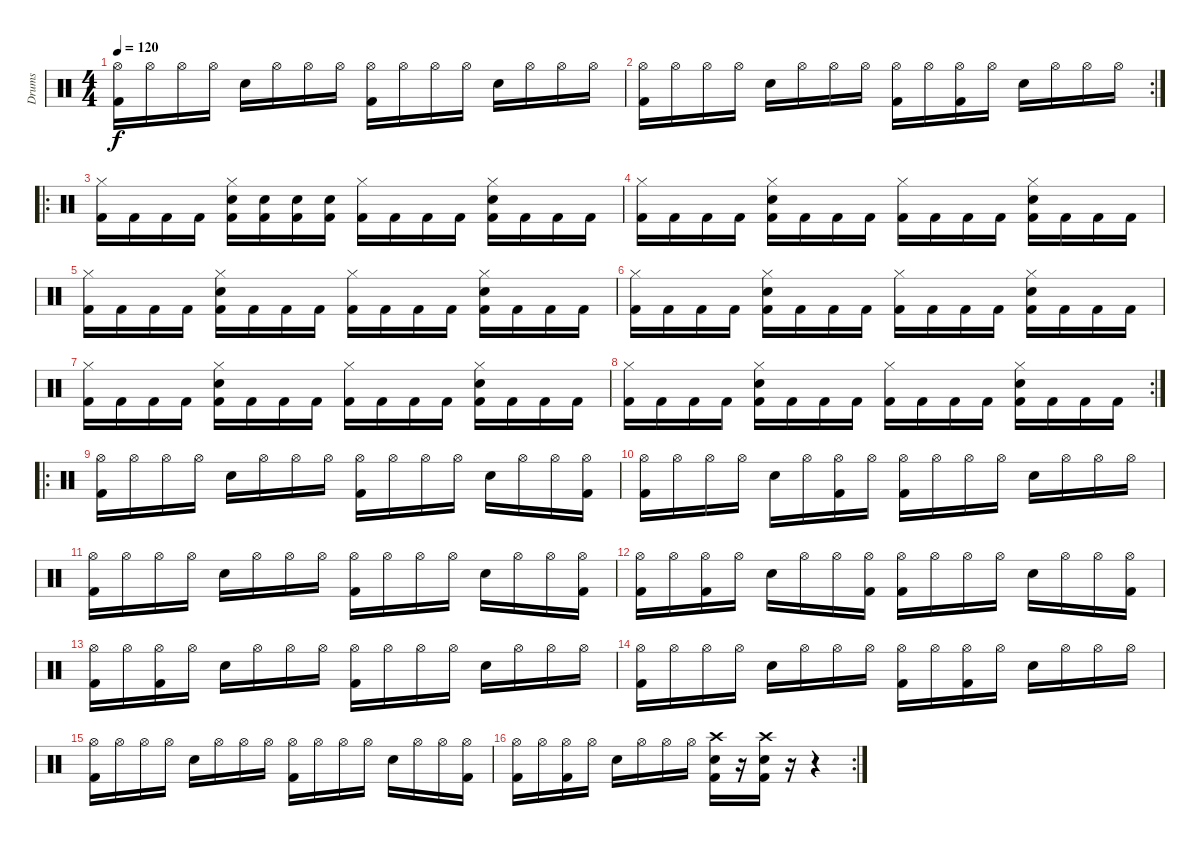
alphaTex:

\track ("Drums" "Drums") {instrument percussion}
\staff {score}
\articulation defaults
\ts (4 4)
\tempo 120
\clef neutral
\ks c
("Hi-Hat (open)" "Kick (hit) 2").16{dy f} "Hi-Hat (open)".16 "Hi-Hat (open)".16 "Hi-Hat (open)".16 "Electric Snare (hit)".16 "Hi-Hat (open)".16 "Hi-Hat (open)".16 "Hi-Hat (open)".16 ("Hi-Hat (open)" "Kick (hit) 2").16 "Hi-Hat (open)".16 "Hi-Hat (open)".16 "Hi-Hat (open)".16 "Electric Snare (hit)".16 "Hi-Hat (open)".16 "Hi-Hat (open)".16 "Hi-Hat (open)".16 |
\rc 2
("Hi-Hat (open)" "Kick (hit) 2").16 "Hi-Hat (open)".16 "Hi-Hat (open)".16 "Hi-Hat (open)".16 "Electric Snare (hit)".16 "Hi-Hat (open)".16 "Hi-Hat (open)".16 "Hi-Hat (open)".16 ("Hi-Hat (open)" "Kick (hit) 2").16 "Hi-Hat (open)".16 ("Hi-Hat (open)" "Kick (hit) 2").16 "Hi-Hat (open)".16 "Electric Snare (hit)".16 "Hi-Hat (open)".16 "Hi-Hat (open)".16 "Hi-Hat (open)".16 |
\ro
("Hi-Hat (closed)" "Kick (hit) 2").16 "Kick (hit) 2".16 "Kick (hit) 2".16 "Kick (hit) 2".16 ("Hi-Hat (closed)" "Electric Snare (hit)" "Kick (hit) 2").16 ("Electric Snare (hit)" "Kick (hit) 2").16 ("Electric Snare (hit)" "Kick (hit) 2").16 ("Electric Snare (hit)" "Kick (hit) 2").16 ("Hi-Hat (closed)" "Kick (hit) 2").16 "Kick (hit) 2".16 "Kick (hit) 2".16 "Kick (hit) 2".16 ("Hi-Hat (closed)" "Electric Snare (hit)" "Kick (hit) 2").16 "Kick (hit) 2".16 "Kick (hit) 2".16 "Kick (hit) 2".16 |
("Hi-Hat (closed)" "Kick (hit) 2").16 "Kick (hit) 2".16 "Kick (hit) 2".16 "Kick (hit) 2".16 ("Hi-Hat (closed)" "Electric Snare (hit)" "Kick (hit) 2").16 "Kick (hit) 2".16 "Kick (hit) 2".16 "Kick (hit) 2".16 ("Hi-Hat (closed)" "Kick (hit) 2").16 "Kick (hit) 2".16 "Kick (hit) 2".16 "Kick (hit) 2".16 ("Hi-Hat (closed)" "Electric Snare (hit)" "Kick (hit) 2").16 "Kick (hit) 2".16 "Kick (hit) 2".16 "Kick (hit) 2".16 |
("Hi-Hat (closed)" "Kick (hit) 2").16 "Kick (hit) 2".16 "Kick (hit) 2".16 "Kick (hit) 2".16 ("Hi-Hat (closed)" "Electric Snare (hit)" "Kick (hit) 2").16 "Kick (hit) 2".16 "Kick (hit) 2".16 "Kick (hit) 2".16 ("Hi-Hat (closed)" "Kick (hit) 2").16 "Kick (hit) 2".16 "Kick (hit) 2".16 "Kick (hit) 2".16 ("Hi-Hat (closed)" "Electric Snare (hit)" "Kick (hit) 2").16 "Kick (hit) 2".16 "Kick (hit) 2".16 "Kick (hit) 2".16 |
("Hi-Hat (closed)" "Kick (hit) 2").16 "Kick (hit) 2".16 "Kick (hit) 2".16 "Kick (hit) 2".16 ("Hi-Hat (closed)" "Electric Snare (hit)" "Kick (hit) 2").16 "Kick (hit) 2".16 "Kick (hit) 2".16 "Kick (hit) 2".16 ("Hi-Hat (closed)" "Kick (hit) 2").16 "Kick (hit) 2".16 "Kick (hit) 2".16 "Kick (hit) 2".16 ("Hi-Hat (closed)" "Electric Snare (hit)" "Kick (hit) 2").16 "Kick (hit) 2".16 "Kick (hit) 2".16 "Kick (hit) 2".16 |
("Hi-Hat (closed)" "Kick (hit) 2").16 "Kick (hit) 2".16 "Kick (hit) 2".16 "Kick (hit) 2".16 ("Hi-Hat (closed)" "Electric Snare (hit)" "Kick (hit) 2").16 "Kick (hit) 2".16 "Kick (hit) 2".16 "Kick (hit) 2".16 ("Hi-Hat (closed)" "Kick (hit) 2").16 "Kick (hit) 2".16 "Kick (hit) 2".16 "Kick (hit) 2".16 ("Hi-Hat (closed)" "Electric Snare (hit)" "Kick (hit) 2").16 "Kick (hit) 2".16 "Kick (hit) 2".16 "Kick (hit) 2".16 |
\rc 2
("Hi-Hat (closed)" "Kick (hit) 2").16 "Kick (hit) 2".16 "Kick (hit) 2".16 "Kick (hit) 2".16 ("Hi-Hat (closed)" "Electric Snare (hit)" "Kick (hit) 2").16 "Kick (hit) 2".16 "Kick (hit) 2".16 "Kick (hit) 2".16 ("Hi-Hat (closed)" "Kick (hit) 2").16 "Kick (hit) 2".16 "Kick (hit) 2".16 "Kick (hit) 2".16 ("Hi-Hat (closed)" "Electric Snare (hit)" "Kick (hit) 2").16 "Kick (hit) 2".16 "Kick (hit) 2".16 "Kick (hit) 2".16 |
\ro
("Hi-Hat (open)" "Kick (hit) 2").16 "Hi-Hat (open)".16 "Hi-Hat (open)".16 "Hi-Hat (open)".16 "Electric Snare (hit)".16 "Hi-Hat (open)".16 "Hi-Hat (open)".16 "Hi-Hat (open)".16 ("Hi-Hat (open)" "Kick (hit) 2").16 "Hi-Hat (open)".16 "Hi-Hat (open)".16 "Hi-Hat (open)".16 "Electric Snare (hit)".16 "Hi-Hat (open)".16 "Hi-Hat (open)".16 ("Hi-Hat (open)" "Kick (hit) 2").16 |
("Hi-Hat (open)" "Kick (hit) 2").16 "Hi-Hat (open)".16 "Hi-Hat (open)".16 "Hi-Hat (open)".16 "Electric Snare (hit)".16 "Hi-Hat (open)".16 ("Hi-Hat (open)" "Kick (hit) 2").16 "Hi-Hat (open)".16 ("Hi-Hat (open)" "Kick (hit) 2").16 "Hi-Hat (open)".16 "Hi-Hat (open)".16 "Hi-Hat (open)".16 "Electric Snare (hit)".16 "Hi-Hat (open)".16 "Hi-Hat (open)".16 "Hi-Hat (open)".16 |
("Hi-Hat (open)" "Kick (hit) 2").16 "Hi-Hat (open)".16 "Hi-Hat (open)".16 "Hi-Hat (open)".16 "Electric Snare (hit)".16 "Hi-Hat (open)".16 "Hi-Hat (open)".16 "Hi-Hat (open)".16 ("Hi-Hat (open)" "Kick (hit) 2").16 "Hi-Hat (open)".16 "Hi-Hat (open)".16 "Hi-Hat (open)".16 "Electric Snare (hit)".16 "Hi-Hat (open)".16 "Hi-Hat (open)".16 ("Hi-Hat (open)" "Kick (hit) 2").16 |
("Hi-Hat (open)" "Kick (hit) 2").16 "Hi-Hat (open)".16 ("Hi-Hat (open)" "Kick (hit) 2").16 "Hi-Hat (open)".16 "Electric Snare (hit)".16 "Hi-Hat (open)".16 "Hi-Hat (open)".16 ("Hi-Hat (open)" "Kick (hit) 2").16 ("Hi-Hat (open)" "Kick (hit) 2").16 "Hi-Hat (open)".16 "Hi-Hat (open)".16 "Hi-Hat (open)".16 "Electric Snare (hit)".16 "Hi-Hat (open)".16 "Hi-Hat (open)".16 ("Hi-Hat (open)" "Kick (hit) 2").16 |
("Hi-Hat (open)" "Kick (hit) 2").16 "Hi-Hat (open)".16 ("Hi-Hat (open)" "Kick (hit) 2").16 "Hi-Hat (open)".16 "Electric Snare (hit)".16 "Hi-Hat (open)".16 "Hi-Hat (open)".16 "Hi-Hat (open)".16 ("Hi-Hat (open)" "Kick (hit) 2").16 "Hi-Hat (open)".16 "Hi-Hat (open)".16 "Hi-Hat (open)".16 "Electric Snare (hit)".16 "Hi-Hat (open)".16 "Hi-Hat (open)".16 "Hi-Hat (open)".16 |
("Hi-Hat (open)" "Kick (hit) 2").16 "Hi-Hat (open)".16 "Hi-Hat (open)".16 "Hi-Hat (open)".16 "Electric Snare (hit)".16 "Hi-Hat (open)".16 "Hi-Hat (open)".16 "Hi-Hat (open)".16 ("Hi-Hat (open)" "Kick (hit) 2").16 "Hi-Hat (open)".16 ("Hi-Hat (open)" "Kick (hit) 2").16 "Hi-Hat (open)".16 "Electric Snare (hit)".16 "Hi-Hat (open)".16 "Hi-Hat (open)".16 "Hi-Hat (open)".16 |
("Hi-Hat (open)" "Kick (hit) 2").16 "Hi-Hat (open)".16 "Hi-Hat (open)".16 "Hi-Hat (open)".16 "Electric Snare (hit)".16 "Hi-Hat (open)".16 "Hi-Hat (open)".16 "Hi-Hat (open)".16 ("Hi-Hat (open)" "Kick (hit) 2").16 "Hi-Hat (open)".16 "Hi-Hat (open)".16 "Hi-Hat (open)".16 "Electric Snare (hit)".16 "Hi-Hat (open)".16 "Hi-Hat (open)".16 ("Hi-Hat (open)" "Kick (hit) 2").16 |
\rc 2
("Hi-Hat (open)" "Kick (hit) 2").16 "Hi-Hat (open)".16 ("Hi-Hat (open)" "Kick (hit) 2").16 "Hi-Hat (open)".16 "Electric Snare (hit)".16 "Hi-Hat (open)".16 "Hi-Hat (open)".16 "Hi-Hat (open)".16 ("Crash high (hit)" "Electric Snare (hit)" "Kick (hit) 2").16 r.16 ("Crash high (hit)" "Electric Snare (hit)" "Kick (hit) 2").16 r.16 r.4
